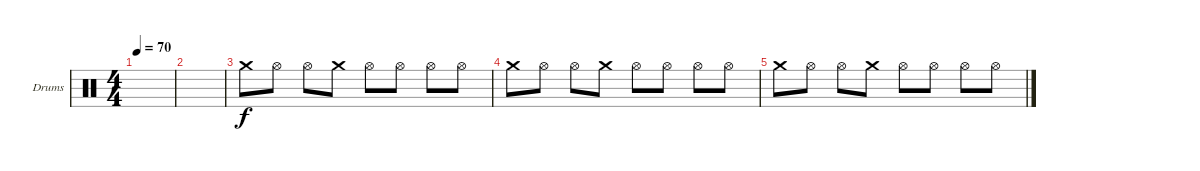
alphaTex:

\defaultSystemsLayout 4
\bracketExtendMode groupsimilarinstruments
\firstSystemTrackNameOrientation horizontal
\otherSystemsTrackNameOrientation horizontal
\track ("Drumkit" "Drums") {instrument percussion}
\staff {score}
\articulation defaults
\ts (4 4)
\tempo 70
\clef neutral
\ks c
|
|
"Crash medium (hit)".8 "Hi-Hat (open)".8 "Hi-Hat (open)".8 "Crash medium (hit)".8 "Hi-Hat (open)".8 "Hi-Hat (open)".8 "Hi-Hat (open)".8 "Hi-Hat (open)".8 |
"Crash medium (hit)".8 "Hi-Hat (open)".8 "Hi-Hat (open)".8 "Crash medium (hit)".8 "Hi-Hat (open)".8 "Hi-Hat (open)".8 "Hi-Hat (open)".8 "Hi-Hat (open)".8 |
"Crash medium (hit)".8 "Hi-Hat (open)".8 "Hi-Hat (open)".8 "Crash medium (hit)".8 "Hi-Hat (open)".8 "Hi-Hat (open)".8 "Hi-Hat (open)".8 "Hi-Hat (open)".8
